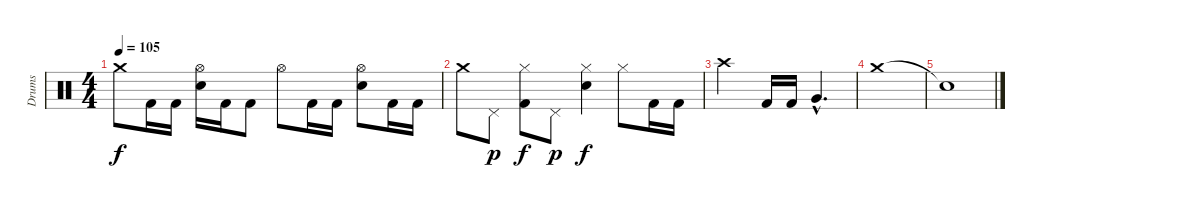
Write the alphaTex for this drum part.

\track ("Drums" "Drums") {instrument percussion}
\staff {score}
\articulation defaults
\ts (4 4)
\tempo 105
\clef neutral
\ks c "Crash medium (hit)".8{dy f} "Kick (hit) 2".16 "Kick (hit) 2".16
("Hi-Hat (open)" "Electric Snare (hit)").16 "Kick (hit) 2".16 "Kick (hit) 2".8 "Hi-Hat (open)".8 "Kick (hit) 2".16 "Kick (hit) 2".16 ("Hi-Hat (open)" "Electric Snare (hit)").8 "Kick (hit) 2".16 "Kick (hit) 2".16 |
"Crash medium (hit)".8 "Pedal Hi-Hat (hit)".8{dy p} ("Hi-Hat (closed)" "Kick (hit) 2").8{dy f} "Pedal Hi-Hat (hit)".8{dy p} ("Hi-Hat (closed)" "Electric Snare (hit)").4{dy f} "Hi-Hat (closed)".8 "Kick (hit) 2".16 "Kick (hit) 2".16 |
"Crash high (hit)".2 "Kick (hit) 2".16 "Kick (hit) 2".16 "Very Low Tom (hit)"{hac}.4{d} |
"Crash medium (hit)".1 |
"Snare (hit)"{t}.1
